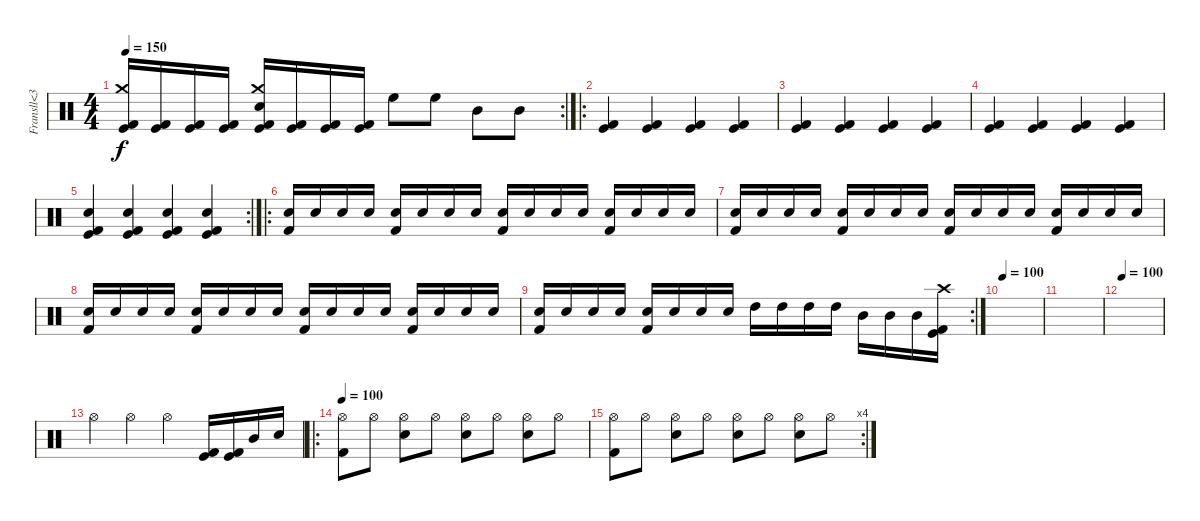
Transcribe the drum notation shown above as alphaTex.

\track ("Fransll<3" "Fransll<3") {instrument percussion}
\staff {score}
\articulation defaults
\rc 2
\ts (4 4)
\tempo 150
\clef neutral
\ks c
("Kick (hit) 2" "Crash medium (hit)" "Kick (hit)").16{dy f} ("Kick (hit) 2" "Kick (hit)").16 ("Kick (hit) 2" "Kick (hit)").16 ("Kick (hit) 2" "Kick (hit)").16 ("Kick (hit) 2" "Crash medium (hit)" "Kick (hit)" "Electric Snare (hit)").16 ("Kick (hit) 2" "Kick (hit)").16 ("Kick (hit) 2" "Kick (hit)").16 ("Kick (hit) 2" "Kick (hit)").16 "High Floor Tom (hit)".8 "High Floor Tom (hit)".8 "Mid Tom (hit)".8 "Mid Tom (hit)".8 |
\ro
("Kick (hit)" "Kick (hit) 2").4 ("Kick (hit)" "Kick (hit) 2").4 ("Kick (hit)" "Kick (hit) 2").4 ("Kick (hit)" "Kick (hit) 2").4 |
("Kick (hit)" "Kick (hit) 2").4 ("Kick (hit)" "Kick (hit) 2").4 ("Kick (hit)" "Kick (hit) 2").4 ("Kick (hit)" "Kick (hit) 2").4 |
("Kick (hit)" "Kick (hit) 2").4 ("Kick (hit)" "Kick (hit) 2").4 ("Kick (hit)" "Kick (hit) 2").4 ("Kick (hit)" "Kick (hit) 2").4 |
\rc 2
("Kick (hit)" "Kick (hit) 2" "Electric Snare (hit)").4 ("Kick (hit)" "Kick (hit) 2" "Electric Snare (hit)").4 ("Kick (hit)" "Kick (hit) 2" "Electric Snare (hit)").4 ("Kick (hit)" "Kick (hit) 2" "Electric Snare (hit)").4 |
\ro
("Kick (hit) 2" "Electric Snare (hit)").16 "Electric Snare (hit)".16 "Electric Snare (hit)".16 "Electric Snare (hit)".16 ("Kick (hit) 2" "Electric Snare (hit)").16 "Electric Snare (hit)".16 "Electric Snare (hit)".16 "Electric Snare (hit)".16 ("Kick (hit) 2" "Electric Snare (hit)").16 "Electric Snare (hit)".16 "Electric Snare (hit)".16 "Electric Snare (hit)".16 ("Kick (hit) 2" "Electric Snare (hit)").16 "Electric Snare (hit)".16 "Electric Snare (hit)".16 "Electric Snare (hit)".16 |
("Kick (hit) 2" "Electric Snare (hit)").16 "Electric Snare (hit)".16 "Electric Snare (hit)".16 "Electric Snare (hit)".16 ("Kick (hit) 2" "Electric Snare (hit)").16 "Electric Snare (hit)".16 "Electric Snare (hit)".16 "Electric Snare (hit)".16 ("Kick (hit) 2" "Electric Snare (hit)").16 "Electric Snare (hit)".16 "Electric Snare (hit)".16 "Electric Snare (hit)".16 ("Kick (hit) 2" "Electric Snare (hit)").16 "Electric Snare (hit)".16 "Electric Snare (hit)".16 "Electric Snare (hit)".16 |
("Kick (hit) 2" "Electric Snare (hit)").16 "Electric Snare (hit)".16 "Electric Snare (hit)".16 "Electric Snare (hit)".16 ("Kick (hit) 2" "Electric Snare (hit)").16 "Electric Snare (hit)".16 "Electric Snare (hit)".16 "Electric Snare (hit)".16 ("Kick (hit) 2" "Electric Snare (hit)").16 "Electric Snare (hit)".16 "Electric Snare (hit)".16 "Electric Snare (hit)".16 ("Kick (hit) 2" "Electric Snare (hit)").16 "Electric Snare (hit)".16 "Electric Snare (hit)".16 "Electric Snare (hit)".16 |
\rc 2
("Kick (hit) 2" "Electric Snare (hit)").16 "Electric Snare (hit)".16 "Electric Snare (hit)".16 "Electric Snare (hit)".16 ("Kick (hit) 2" "Electric Snare (hit)").16 "Electric Snare (hit)".16 "Electric Snare (hit)".16 "Electric Snare (hit)".16 "High Tom (hit)".16 "High Tom (hit)".16 "High Tom (hit)".16 "High Tom (hit)".16 "Mid Tom (hit)".16 "Mid Tom (hit)".16 "Mid Tom (hit)".16 ("Crash high (hit)" "Kick (hit) 2" "Kick (hit)").16 |
\tempo 100
|
|
\tempo 100
|
"Hi-Hat (open)".4 "Hi-Hat (open)".4 "Hi-Hat (open)".4 ("Kick (hit) 2" "Kick (hit)").16 ("Kick (hit) 2" "Kick (hit)").16 "Mid Tom (hit)".16 "Electric Snare (hit)".16 |
\ro
\tempo 100
("Hi-Hat (open)" "Kick (hit) 2").8 "Hi-Hat (open)".8 ("Hi-Hat (open)" "Snare (hit) 2").8 "Hi-Hat (open)".8 ("Hi-Hat (open)" "Snare (hit) 2").8 "Hi-Hat (open)".8 ("Hi-Hat (open)" "Snare (hit) 2").8 "Hi-Hat (open)".8 |
\rc 4
("Hi-Hat (open)" "Kick (hit) 2").8 "Hi-Hat (open)".8 ("Hi-Hat (open)" "Snare (hit) 2").8 "Hi-Hat (open)".8 ("Hi-Hat (open)" "Snare (hit) 2").8 "Hi-Hat (open)".8 ("Hi-Hat (open)" "Snare (hit) 2").8 "Hi-Hat (open)".8
